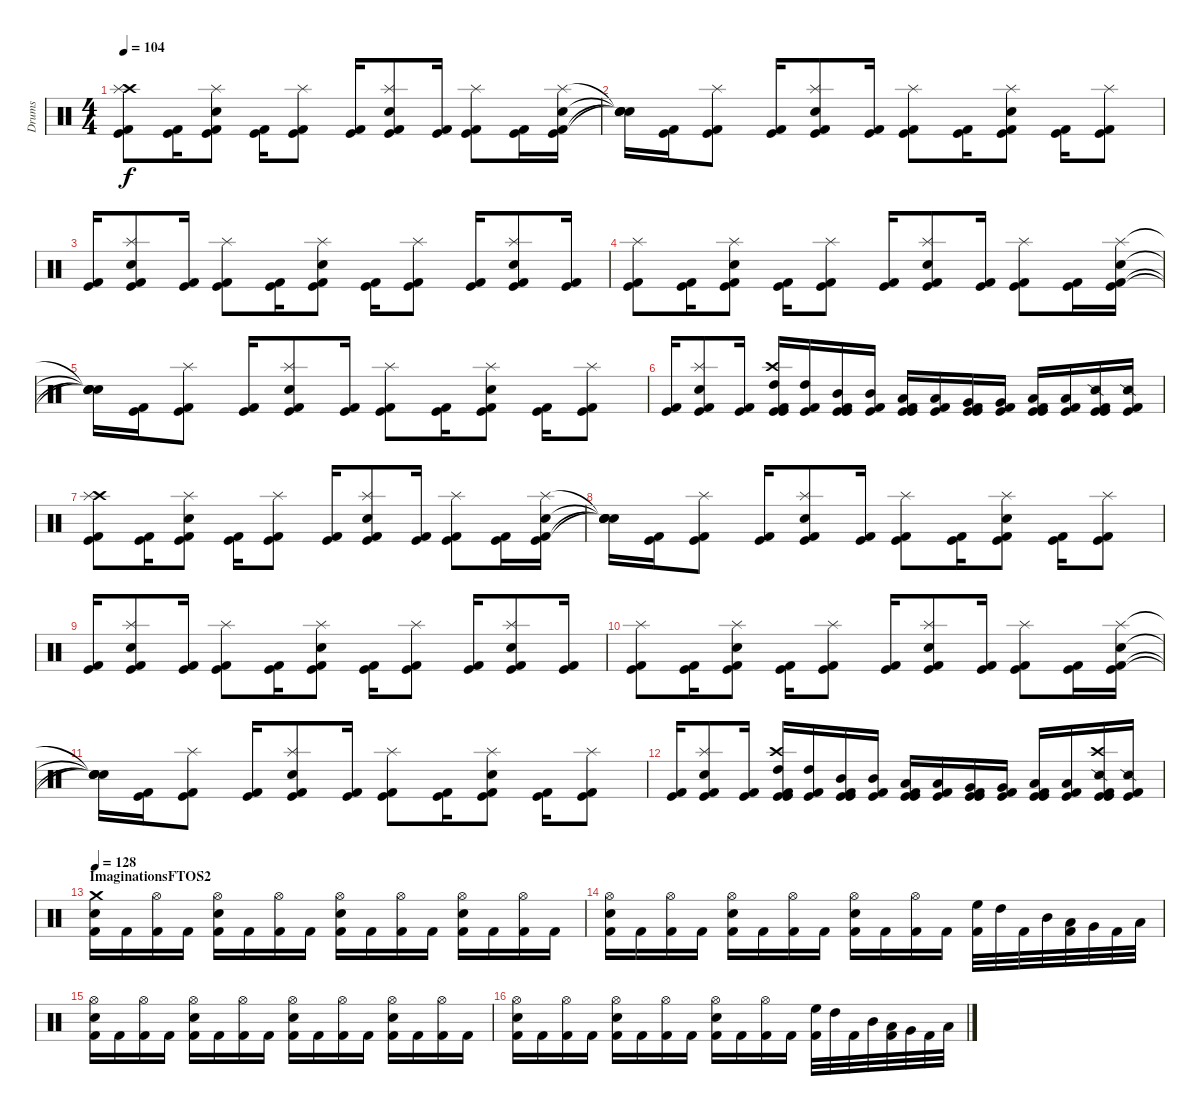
\track ("Drums" "Drums") {instrument percussion}
\staff {score}
\articulation defaults
\ts (4 4)
\tempo 104
\clef neutral
\ks c
("Kick (hit)" "Kick (hit) 2" "Crash high (hit)" "Splash (hit)").8{dy f} ("Kick (hit)" "Kick (hit) 2").16 ("Kick (hit)" "Kick (hit) 2" "Snare (hit) 2" "Splash (hit)").8 ("Kick (hit)" "Kick (hit) 2").16 ("Kick (hit)" "Kick (hit) 2" "Splash (hit)").8 ("Kick (hit)" "Kick (hit) 2").16 ("Kick (hit)" "Kick (hit) 2" "Snare (hit) 2" "Splash (hit)").8 ("Kick (hit)" "Kick (hit) 2").16 ("Kick (hit)" "Kick (hit) 2" "Splash (hit)").8 ("Kick (hit)" "Kick (hit) 2").16 ("Kick (hit)" "Kick (hit) 2" "Snare (hit) 2" "Splash (hit)").16 |
("Snare (hit)"{t} "Snare (hit)"{t} "Snare (hit)"{t} "Snare (hit)"{t}).16 ("Kick (hit)" "Kick (hit) 2").16 ("Kick (hit)" "Kick (hit) 2" "Splash (hit)").8 ("Kick (hit)" "Kick (hit) 2").16 ("Kick (hit)" "Kick (hit) 2" "Snare (hit) 2" "Splash (hit)").8 ("Kick (hit)" "Kick (hit) 2").16 ("Kick (hit)" "Kick (hit) 2" "Splash (hit)").8 ("Kick (hit)" "Kick (hit) 2").16 ("Kick (hit)" "Kick (hit) 2" "Snare (hit) 2" "Splash (hit)").8 ("Kick (hit)" "Kick (hit) 2").16 ("Kick (hit)" "Kick (hit) 2" "Splash (hit)").8 |
("Kick (hit)" "Kick (hit) 2").16 ("Kick (hit)" "Kick (hit) 2" "Snare (hit) 2" "Splash (hit)").8 ("Kick (hit)" "Kick (hit) 2").16 ("Kick (hit)" "Kick (hit) 2" "Splash (hit)").8 ("Kick (hit)" "Kick (hit) 2").16 ("Kick (hit)" "Kick (hit) 2" "Snare (hit) 2" "Splash (hit)").8 ("Kick (hit)" "Kick (hit) 2").16 ("Kick (hit)" "Kick (hit) 2" "Splash (hit)").8 ("Kick (hit)" "Kick (hit) 2").16 ("Kick (hit)" "Kick (hit) 2" "Snare (hit) 2" "Splash (hit)").8 ("Kick (hit)" "Kick (hit) 2").16 |
("Kick (hit)" "Kick (hit) 2" "Splash (hit)").8 ("Kick (hit)" "Kick (hit) 2").16 ("Kick (hit)" "Kick (hit) 2" "Snare (hit) 2" "Splash (hit)").8 ("Kick (hit)" "Kick (hit) 2").16 ("Kick (hit)" "Kick (hit) 2" "Splash (hit)").8 ("Kick (hit)" "Kick (hit) 2").16 ("Kick (hit)" "Kick (hit) 2" "Snare (hit) 2" "Splash (hit)").8 ("Kick (hit)" "Kick (hit) 2").16 ("Kick (hit)" "Kick (hit) 2" "Splash (hit)").8 ("Kick (hit)" "Kick (hit) 2").16 ("Kick (hit)" "Kick (hit) 2" "Snare (hit) 2" "Splash (hit)").16 |
("Snare (hit)"{t} "Snare (hit)"{t} "Snare (hit)"{t} "Snare (hit)"{t}).16 ("Kick (hit)" "Kick (hit) 2").16 ("Kick (hit)" "Kick (hit) 2" "Splash (hit)").8 ("Kick (hit)" "Kick (hit) 2").16 ("Kick (hit)" "Kick (hit) 2" "Snare (hit) 2" "Splash (hit)").8 ("Kick (hit)" "Kick (hit) 2").16 ("Kick (hit)" "Kick (hit) 2" "Splash (hit)").8 ("Kick (hit)" "Kick (hit) 2").16 ("Kick (hit)" "Kick (hit) 2" "Snare (hit) 2" "Splash (hit)").8 ("Kick (hit)" "Kick (hit) 2").16 ("Kick (hit)" "Kick (hit) 2" "Splash (hit)").8 |
("Kick (hit)" "Kick (hit) 2").16 ("Kick (hit)" "Kick (hit) 2" "Snare (hit) 2" "Splash (hit)").8 ("Kick (hit)" "Kick (hit) 2").16 ("Kick (hit)" "Kick (hit)" "Kick (hit) 2" "High Tom (hit)" "Crash high (hit)").16 ("Kick (hit)" "Kick (hit) 2" "High Tom (hit)").16 ("Kick (hit)" "Kick (hit)" "Kick (hit) 2" "Mid Tom (hit)").16 ("Kick (hit)" "Kick (hit) 2" "Mid Tom (hit)").16 ("Kick (hit)" "Kick (hit)" "Kick (hit) 2" "Low Tom (hit)").16 ("Kick (hit)" "Kick (hit) 2" "Low Tom (hit)").16 ("Kick (hit)" "Kick (hit)" "Kick (hit) 2" "Very Low Tom (hit)").16 ("Kick (hit)" "Kick (hit) 2" "Very Low Tom (hit)").16 ("Kick (hit)" "Kick (hit)" "Kick (hit) 2" "Low Floor Tom (hit)").16 ("Kick (hit)" "Kick (hit) 2" "Low Floor Tom (hit)").16 ("Snare (side stick) 2" "Kick (hit)" "Kick (hit)" "Kick (hit) 2").16 ("Snare (side stick) 2" "Kick (hit)" "Kick (hit) 2").16 |
("Kick (hit)" "Kick (hit) 2" "Crash high (hit)" "Splash (hit)").8 ("Kick (hit)" "Kick (hit) 2").16 ("Kick (hit)" "Kick (hit) 2" "Snare (hit) 2" "Splash (hit)").8 ("Kick (hit)" "Kick (hit) 2").16 ("Kick (hit)" "Kick (hit) 2" "Splash (hit)").8 ("Kick (hit)" "Kick (hit) 2").16 ("Kick (hit)" "Kick (hit) 2" "Snare (hit) 2" "Splash (hit)").8 ("Kick (hit)" "Kick (hit) 2").16 ("Kick (hit)" "Kick (hit) 2" "Splash (hit)").8 ("Kick (hit)" "Kick (hit) 2").16 ("Kick (hit)" "Kick (hit) 2" "Snare (hit) 2" "Splash (hit)").16 |
("Snare (hit)"{t} "Snare (hit)"{t} "Snare (hit)"{t} "Snare (hit)"{t}).16 ("Kick (hit)" "Kick (hit) 2").16 ("Kick (hit)" "Kick (hit) 2" "Splash (hit)").8 ("Kick (hit)" "Kick (hit) 2").16 ("Kick (hit)" "Kick (hit) 2" "Snare (hit) 2" "Splash (hit)").8 ("Kick (hit)" "Kick (hit) 2").16 ("Kick (hit)" "Kick (hit) 2" "Splash (hit)").8 ("Kick (hit)" "Kick (hit) 2").16 ("Kick (hit)" "Kick (hit) 2" "Snare (hit) 2" "Splash (hit)").8 ("Kick (hit)" "Kick (hit) 2").16 ("Kick (hit)" "Kick (hit) 2" "Splash (hit)").8 |
("Kick (hit)" "Kick (hit) 2").16 ("Kick (hit)" "Kick (hit) 2" "Snare (hit) 2" "Splash (hit)").8 ("Kick (hit)" "Kick (hit) 2").16 ("Kick (hit)" "Kick (hit) 2" "Splash (hit)").8 ("Kick (hit)" "Kick (hit) 2").16 ("Kick (hit)" "Kick (hit) 2" "Snare (hit) 2" "Splash (hit)").8 ("Kick (hit)" "Kick (hit) 2").16 ("Kick (hit)" "Kick (hit) 2" "Splash (hit)").8 ("Kick (hit)" "Kick (hit) 2").16 ("Kick (hit)" "Kick (hit) 2" "Snare (hit) 2" "Splash (hit)").8 ("Kick (hit)" "Kick (hit) 2").16 |
("Kick (hit)" "Kick (hit) 2" "Splash (hit)").8 ("Kick (hit)" "Kick (hit) 2").16 ("Kick (hit)" "Kick (hit) 2" "Snare (hit) 2" "Splash (hit)").8 ("Kick (hit)" "Kick (hit) 2").16 ("Kick (hit)" "Kick (hit) 2" "Splash (hit)").8 ("Kick (hit)" "Kick (hit) 2").16 ("Kick (hit)" "Kick (hit) 2" "Snare (hit) 2" "Splash (hit)").8 ("Kick (hit)" "Kick (hit) 2").16 ("Kick (hit)" "Kick (hit) 2" "Splash (hit)").8 ("Kick (hit)" "Kick (hit) 2").16 ("Kick (hit)" "Kick (hit) 2" "Snare (hit) 2" "Splash (hit)").16 |
("Snare (hit)"{t} "Snare (hit)"{t} "Snare (hit)"{t} "Snare (hit)"{t}).16 ("Kick (hit)" "Kick (hit) 2").16 ("Kick (hit)" "Kick (hit) 2" "Splash (hit)").8 ("Kick (hit)" "Kick (hit) 2").16 ("Kick (hit)" "Kick (hit) 2" "Snare (hit) 2" "Splash (hit)").8 ("Kick (hit)" "Kick (hit) 2").16 ("Kick (hit)" "Kick (hit) 2" "Splash (hit)").8 ("Kick (hit)" "Kick (hit) 2").16 ("Kick (hit)" "Kick (hit) 2" "Snare (hit) 2" "Splash (hit)").8 ("Kick (hit)" "Kick (hit) 2").16 ("Kick (hit)" "Kick (hit) 2" "Splash (hit)").8 |
("Kick (hit)" "Kick (hit) 2").16 ("Kick (hit)" "Kick (hit) 2" "Snare (hit) 2" "Splash (hit)").8 ("Kick (hit)" "Kick (hit) 2").16 ("Kick (hit)" "Kick (hit)" "Kick (hit) 2" "High Tom (hit)" "Crash high (hit)").16 ("Kick (hit)" "Kick (hit) 2" "High Tom (hit)").16 ("Kick (hit)" "Kick (hit)" "Kick (hit) 2" "Mid Tom (hit)").16 ("Kick (hit)" "Kick (hit) 2" "Mid Tom (hit)").16 ("Kick (hit)" "Kick (hit)" "Kick (hit) 2" "Low Tom (hit)").16 ("Kick (hit)" "Kick (hit) 2" "Low Tom (hit)").16 ("Kick (hit)" "Kick (hit)" "Kick (hit) 2" "Very Low Tom (hit)").16 ("Kick (hit)" "Kick (hit) 2" "Very Low Tom (hit)").16 ("Kick (hit)" "Kick (hit)" "Kick (hit) 2" "Low Floor Tom (hit)").16 ("Kick (hit)" "Kick (hit) 2" "Low Floor Tom (hit)").16 ("Snare (side stick) 2" "Kick (hit)" "Kick (hit)" "Kick (hit) 2" "Crash high (hit)").16 ("Snare (side stick) 2" "Kick (hit)" "Kick (hit) 2").16 |
\section ("" "ImaginationsFTOS2")
\tempo 128
("Kick (hit) 2" "Electric Snare (hit)" "Crash medium (hit)").16 "Kick (hit) 2".16 ("Kick (hit) 2" "Hi-Hat (open)").16 "Kick (hit) 2".16 ("Kick (hit) 2" "Electric Snare (hit)" "Hi-Hat (open)").16 "Kick (hit) 2".16 ("Kick (hit) 2" "Hi-Hat (open)").16 "Kick (hit) 2".16 ("Kick (hit) 2" "Electric Snare (hit)" "Hi-Hat (open)").16 "Kick (hit) 2".16 ("Kick (hit) 2" "Hi-Hat (open)").16 "Kick (hit) 2".16 ("Kick (hit) 2" "Electric Snare (hit)" "Hi-Hat (open)").16 "Kick (hit) 2".16 ("Kick (hit) 2" "Hi-Hat (open)").16 "Kick (hit) 2".16 |
("Kick (hit) 2" "Electric Snare (hit)" "Hi-Hat (open)").16 "Kick (hit) 2".16 ("Kick (hit) 2" "Hi-Hat (open)").16 "Kick (hit) 2".16 ("Kick (hit) 2" "Electric Snare (hit)" "Hi-Hat (open)").16 "Kick (hit) 2".16 ("Kick (hit) 2" "Hi-Hat (open)").16 "Kick (hit) 2".16 ("Kick (hit) 2" "Electric Snare (hit)" "Hi-Hat (open)").16 "Kick (hit) 2".16 ("Kick (hit) 2" "Hi-Hat (open)").16 "Kick (hit) 2".16 ("Kick (hit) 2" "High Floor Tom (hit)").32 "High Tom (hit)".32 "Kick (hit) 2".32 "Mid Tom (hit)".32 ("Kick (hit) 2" "Low Tom (hit)").32 "Very Low Tom (hit)".32 "Kick (hit) 2".32 "Low Floor Tom (hit)".32 |
("Kick (hit) 2" "Electric Snare (hit)" "Hi-Hat (open)").16 "Kick (hit) 2".16 ("Kick (hit) 2" "Hi-Hat (open)").16 "Kick (hit) 2".16 ("Kick (hit) 2" "Electric Snare (hit)" "Hi-Hat (open)").16 "Kick (hit) 2".16 ("Kick (hit) 2" "Hi-Hat (open)").16 "Kick (hit) 2".16 ("Kick (hit) 2" "Electric Snare (hit)" "Hi-Hat (open)").16 "Kick (hit) 2".16 ("Kick (hit) 2" "Hi-Hat (open)").16 "Kick (hit) 2".16 ("Kick (hit) 2" "Electric Snare (hit)" "Hi-Hat (open)").16 "Kick (hit) 2".16 ("Kick (hit) 2" "Hi-Hat (open)").16 "Kick (hit) 2".16 |
("Kick (hit) 2" "Electric Snare (hit)" "Hi-Hat (open)").16 "Kick (hit) 2".16 ("Kick (hit) 2" "Hi-Hat (open)").16 "Kick (hit) 2".16 ("Kick (hit) 2" "Electric Snare (hit)" "Hi-Hat (open)").16 "Kick (hit) 2".16 ("Kick (hit) 2" "Hi-Hat (open)").16 "Kick (hit) 2".16 ("Kick (hit) 2" "Electric Snare (hit)" "Hi-Hat (open)").16 "Kick (hit) 2".16 ("Kick (hit) 2" "Hi-Hat (open)").16 "Kick (hit) 2".16 ("Kick (hit) 2" "High Floor Tom (hit)").32 "High Tom (hit)".32 "Kick (hit) 2".32 "Mid Tom (hit)".32 ("Kick (hit) 2" "Low Tom (hit)").32 "Very Low Tom (hit)".32 "Kick (hit) 2".32 "Low Floor Tom (hit)".32
